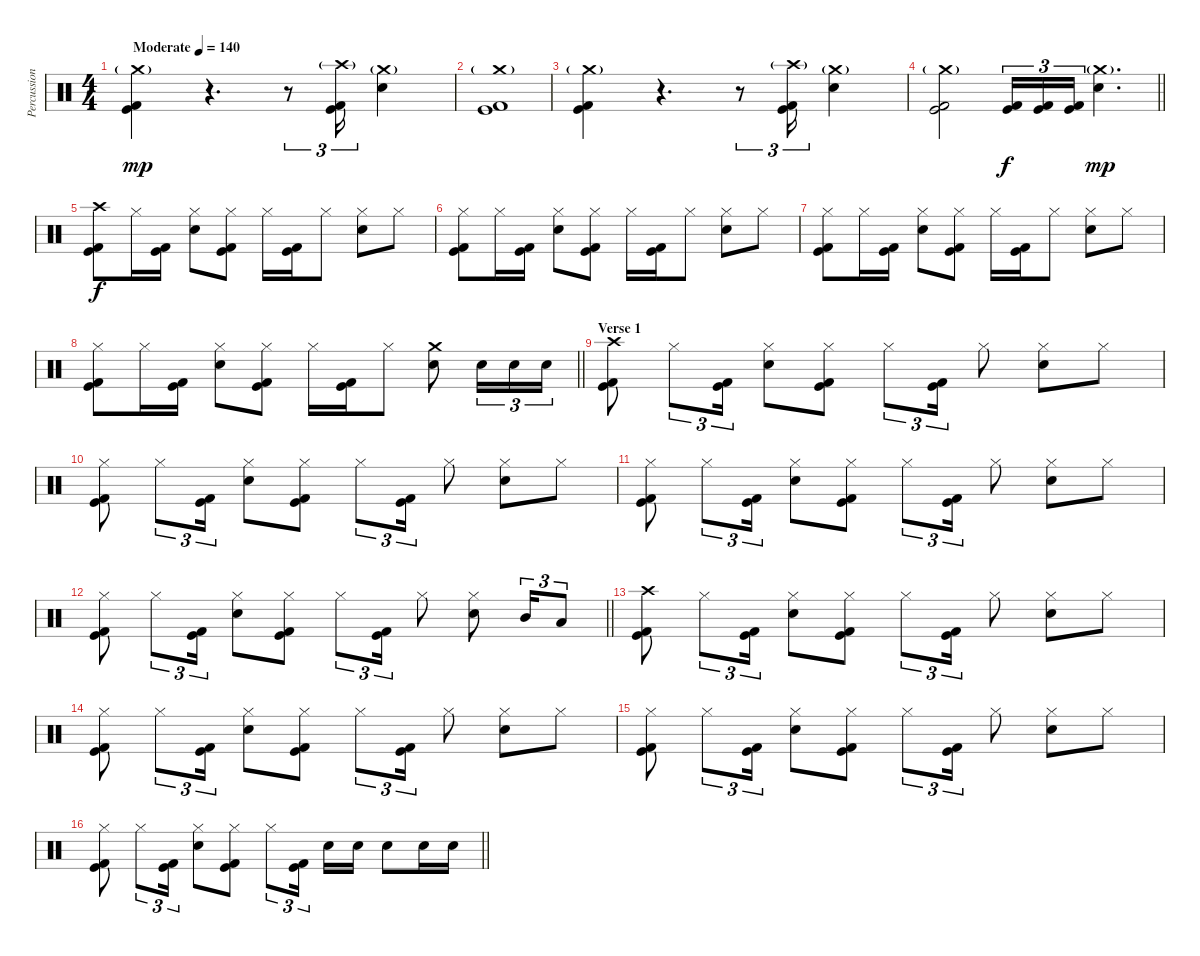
\track ("Percussion" "Percussion") {instrument percussion}
\staff {score}
\articulation defaults
\ts (4 4)
\tempo (140 "Moderate")
\clef neutral
\ks c
("Crash medium (hit)"{g} "Kick (hit)" "Kick (hit) 2").4{dy mp} r.4{d} r.8{tu (3 2)} ("Crash high (hit)"{g} "Kick (hit)" "Kick (hit) 2").16{tu (3 2)} ("Crash medium (hit)"{g} "Electric Snare (hit)").4 |
("Crash medium (hit)"{g} "Kick (hit)" "Kick (hit) 2").1 |
("Crash medium (hit)"{g} "Kick (hit)" "Kick (hit) 2").4 r.4{d} r.8{tu (3 2)} ("Crash high (hit)"{g} "Kick (hit)" "Kick (hit) 2").16{tu (3 2)} ("Crash medium (hit)"{g} "Electric Snare (hit)").4 |
\barLineRight lightlight
("Crash medium (hit)"{g} "Kick (hit)" "Kick (hit) 2").2 ("Kick (hit)" "Kick (hit) 2").16{tu (3 2) dy f} ("Kick (hit)" "Kick (hit) 2").16{tu (3 2)} ("Kick (hit)" "Kick (hit) 2").16{tu (3 2)} ("Crash medium (hit)"{g} "Electric Snare (hit)").4{d dy mp} |
\section ("" "")
("Crash high (hit)" "Kick (hit)" "Kick (hit) 2").8{dy f} "Hi-Hat (closed)".16 ("Kick (hit)" "Kick (hit) 2").16 ("Hi-Hat (closed)" "Electric Snare (hit)").8 ("Hi-Hat (closed)" "Kick (hit)" "Kick (hit) 2").8 "Hi-Hat (closed)".16 ("Kick (hit)" "Kick (hit) 2").16 "Hi-Hat (closed)".8 ("Hi-Hat (closed)" "Electric Snare (hit)").8 "Hi-Hat (closed)".8 |
("Hi-Hat (closed)" "Kick (hit)" "Kick (hit) 2").8 "Hi-Hat (closed)".16 ("Kick (hit)" "Kick (hit) 2").16 ("Hi-Hat (closed)" "Electric Snare (hit)").8 ("Hi-Hat (closed)" "Kick (hit)" "Kick (hit) 2").8 "Hi-Hat (closed)".16 ("Kick (hit)" "Kick (hit) 2").16 "Hi-Hat (closed)".8 ("Hi-Hat (closed)" "Electric Snare (hit)").8 "Hi-Hat (closed)".8 |
("Hi-Hat (closed)" "Kick (hit)" "Kick (hit) 2").8 "Hi-Hat (closed)".16 ("Kick (hit)" "Kick (hit) 2").16 ("Hi-Hat (closed)" "Electric Snare (hit)").8 ("Hi-Hat (closed)" "Kick (hit)" "Kick (hit) 2").8 "Hi-Hat (closed)".16 ("Kick (hit)" "Kick (hit) 2").16 "Hi-Hat (closed)".8 ("Hi-Hat (closed)" "Electric Snare (hit)").8 "Hi-Hat (closed)".8 |
\barLineRight lightlight
("Hi-Hat (closed)" "Kick (hit)" "Kick (hit) 2").8 "Hi-Hat (closed)".16 ("Kick (hit)" "Kick (hit) 2").16 ("Hi-Hat (closed)" "Electric Snare (hit)").8 ("Hi-Hat (closed)" "Kick (hit)" "Kick (hit) 2").8 "Hi-Hat (closed)".16 ("Kick (hit)" "Kick (hit) 2").16 "Hi-Hat (closed)".8 ("Crash medium (hit)" "Electric Snare (hit)").8 "Electric Snare (hit)".16{tu (3 2)} "Electric Snare (hit)".16{tu (3 2)} "Electric Snare (hit)".16{tu (3 2)} |
\section ("" "Verse 1")
("Crash high (hit)" "Kick (hit)" "Kick (hit) 2").8 "Hi-Hat (closed)".8{tu (3 2)} ("Kick (hit)" "Kick (hit) 2").16{tu (3 2)} ("Hi-Hat (closed)" "Electric Snare (hit)").8 ("Hi-Hat (closed)" "Kick (hit)" "Kick (hit) 2").8 "Hi-Hat (closed)".8{tu (3 2)} ("Kick (hit)" "Kick (hit) 2").16{tu (3 2)} "Hi-Hat (closed)".8 ("Hi-Hat (closed)" "Electric Snare (hit)").8 "Hi-Hat (closed)".8 |
("Hi-Hat (closed)" "Kick (hit)" "Kick (hit) 2").8 "Hi-Hat (closed)".8{tu (3 2)} ("Kick (hit)" "Kick (hit) 2").16{tu (3 2)} ("Hi-Hat (closed)" "Electric Snare (hit)").8 ("Hi-Hat (closed)" "Kick (hit)" "Kick (hit) 2").8 "Hi-Hat (closed)".8{tu (3 2)} ("Kick (hit)" "Kick (hit) 2").16{tu (3 2)} "Hi-Hat (closed)".8 ("Hi-Hat (closed)" "Electric Snare (hit)").8 "Hi-Hat (closed)".8 |
("Hi-Hat (closed)" "Kick (hit)" "Kick (hit) 2").8 "Hi-Hat (closed)".8{tu (3 2)} ("Kick (hit)" "Kick (hit) 2").16{tu (3 2)} ("Hi-Hat (closed)" "Electric Snare (hit)").8 ("Hi-Hat (closed)" "Kick (hit)" "Kick (hit) 2").8 "Hi-Hat (closed)".8{tu (3 2)} ("Kick (hit)" "Kick (hit) 2").16{tu (3 2)} "Hi-Hat (closed)".8 ("Hi-Hat (closed)" "Electric Snare (hit)").8 "Hi-Hat (closed)".8 |
\barLineRight lightlight
("Hi-Hat (closed)" "Kick (hit)" "Kick (hit) 2").8 "Hi-Hat (closed)".8{tu (3 2)} ("Kick (hit)" "Kick (hit) 2").16{tu (3 2)} ("Hi-Hat (closed)" "Electric Snare (hit)").8 ("Hi-Hat (closed)" "Kick (hit)" "Kick (hit) 2").8 "Hi-Hat (closed)".8{tu (3 2)} ("Kick (hit)" "Kick (hit) 2").16{tu (3 2)} "Hi-Hat (closed)".8 ("Hi-Hat (closed)" "Electric Snare (hit)").8 "Mid Tom (hit)".16{tu (3 2)} "Low Tom (hit)".8{tu (3 2)} |
("Crash high (hit)" "Kick (hit)" "Kick (hit) 2").8 "Hi-Hat (closed)".8{tu (3 2)} ("Kick (hit)" "Kick (hit) 2").16{tu (3 2)} ("Hi-Hat (closed)" "Electric Snare (hit)").8 ("Hi-Hat (closed)" "Kick (hit)" "Kick (hit) 2").8 "Hi-Hat (closed)".8{tu (3 2)} ("Kick (hit)" "Kick (hit) 2").16{tu (3 2)} "Hi-Hat (closed)".8 ("Hi-Hat (closed)" "Electric Snare (hit)").8 "Hi-Hat (closed)".8 |
("Hi-Hat (closed)" "Kick (hit)" "Kick (hit) 2").8 "Hi-Hat (closed)".8{tu (3 2)} ("Kick (hit)" "Kick (hit) 2").16{tu (3 2)} ("Hi-Hat (closed)" "Electric Snare (hit)").8 ("Hi-Hat (closed)" "Kick (hit)" "Kick (hit) 2").8 "Hi-Hat (closed)".8{tu (3 2)} ("Kick (hit)" "Kick (hit) 2").16{tu (3 2)} "Hi-Hat (closed)".8 ("Hi-Hat (closed)" "Electric Snare (hit)").8 "Hi-Hat (closed)".8 |
("Hi-Hat (closed)" "Kick (hit)" "Kick (hit) 2").8 "Hi-Hat (closed)".8{tu (3 2)} ("Kick (hit)" "Kick (hit) 2").16{tu (3 2)} ("Hi-Hat (closed)" "Electric Snare (hit)").8 ("Hi-Hat (closed)" "Kick (hit)" "Kick (hit) 2").8 "Hi-Hat (closed)".8{tu (3 2)} ("Kick (hit)" "Kick (hit) 2").16{tu (3 2)} "Hi-Hat (closed)".8 ("Hi-Hat (closed)" "Electric Snare (hit)").8 "Hi-Hat (closed)".8 |
\barLineRight lightlight
("Hi-Hat (closed)" "Kick (hit)" "Kick (hit) 2").8 "Hi-Hat (closed)".8{tu (3 2)} ("Kick (hit)" "Kick (hit) 2").16{tu (3 2)} ("Hi-Hat (closed)" "Electric Snare (hit)").8 ("Hi-Hat (closed)" "Kick (hit)" "Kick (hit) 2").8 "Hi-Hat (closed)".8{tu (3 2)} ("Kick (hit)" "Kick (hit) 2").16{tu (3 2) beam splitsecondary} "Electric Snare (hit)".16 "Electric Snare (hit)".16 "Electric Snare (hit)".8 "Electric Snare (hit)".16 "Electric Snare (hit)".16
